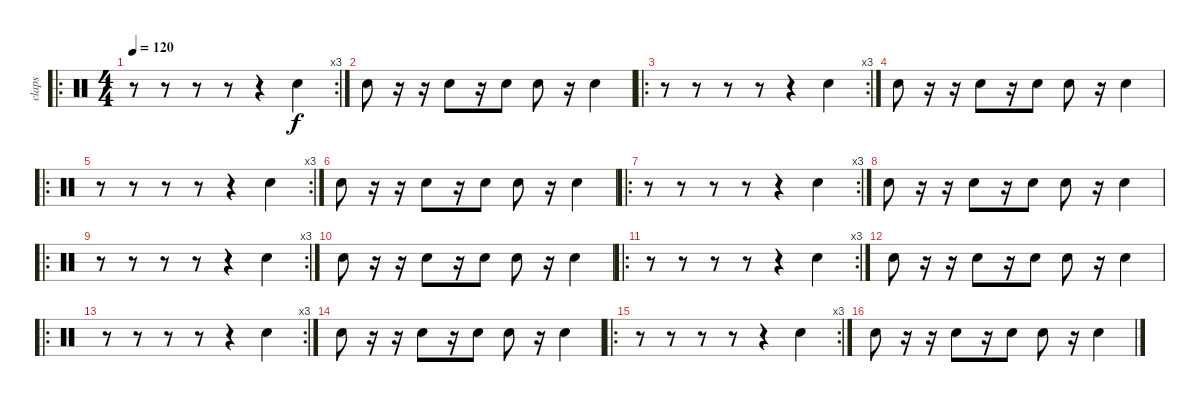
\track ("claps" "claps") {instrument percussion}
\staff {score}
\articulation defaults
\ro
\rc 3
\ts (4 4)
\tempo 120
\clef neutral
\ks c
r.8{dy f} r.8 r.8 r.8 r.4 "Hand Clap (hit)".4 |
"Hand Clap (hit)".8 r.16 r.16 "Hand Clap (hit)".8 r.16 "Hand Clap (hit)".8 "Hand Clap (hit)".8 r.16 "Hand Clap (hit)".4 |
\ro
\rc 3
r.8 r.8 r.8 r.8 r.4 "Hand Clap (hit)".4 |
"Hand Clap (hit)".8 r.16 r.16 "Hand Clap (hit)".8 r.16 "Hand Clap (hit)".8 "Hand Clap (hit)".8 r.16 "Hand Clap (hit)".4 |
\ro
\rc 3
r.8 r.8 r.8 r.8 r.4 "Hand Clap (hit)".4 |
"Hand Clap (hit)".8 r.16 r.16 "Hand Clap (hit)".8 r.16 "Hand Clap (hit)".8 "Hand Clap (hit)".8 r.16 "Hand Clap (hit)".4 |
\ro
\rc 3
r.8 r.8 r.8 r.8 r.4 "Hand Clap (hit)".4 |
"Hand Clap (hit)".8 r.16 r.16 "Hand Clap (hit)".8 r.16 "Hand Clap (hit)".8 "Hand Clap (hit)".8 r.16 "Hand Clap (hit)".4 |
\ro
\rc 3
r.8 r.8 r.8 r.8 r.4 "Hand Clap (hit)".4 |
"Hand Clap (hit)".8 r.16 r.16 "Hand Clap (hit)".8 r.16 "Hand Clap (hit)".8 "Hand Clap (hit)".8 r.16 "Hand Clap (hit)".4 |
\ro
\rc 3
r.8 r.8 r.8 r.8 r.4 "Hand Clap (hit)".4 |
"Hand Clap (hit)".8 r.16 r.16 "Hand Clap (hit)".8 r.16 "Hand Clap (hit)".8 "Hand Clap (hit)".8 r.16 "Hand Clap (hit)".4 |
\ro
\rc 3
r.8 r.8 r.8 r.8 r.4 "Hand Clap (hit)".4 |
"Hand Clap (hit)".8 r.16 r.16 "Hand Clap (hit)".8 r.16 "Hand Clap (hit)".8 "Hand Clap (hit)".8 r.16 "Hand Clap (hit)".4 |
\ro
\rc 3
r.8 r.8 r.8 r.8 r.4 "Hand Clap (hit)".4 |
"Hand Clap (hit)".8 r.16 r.16 "Hand Clap (hit)".8 r.16 "Hand Clap (hit)".8 "Hand Clap (hit)".8 r.16 "Hand Clap (hit)".4
